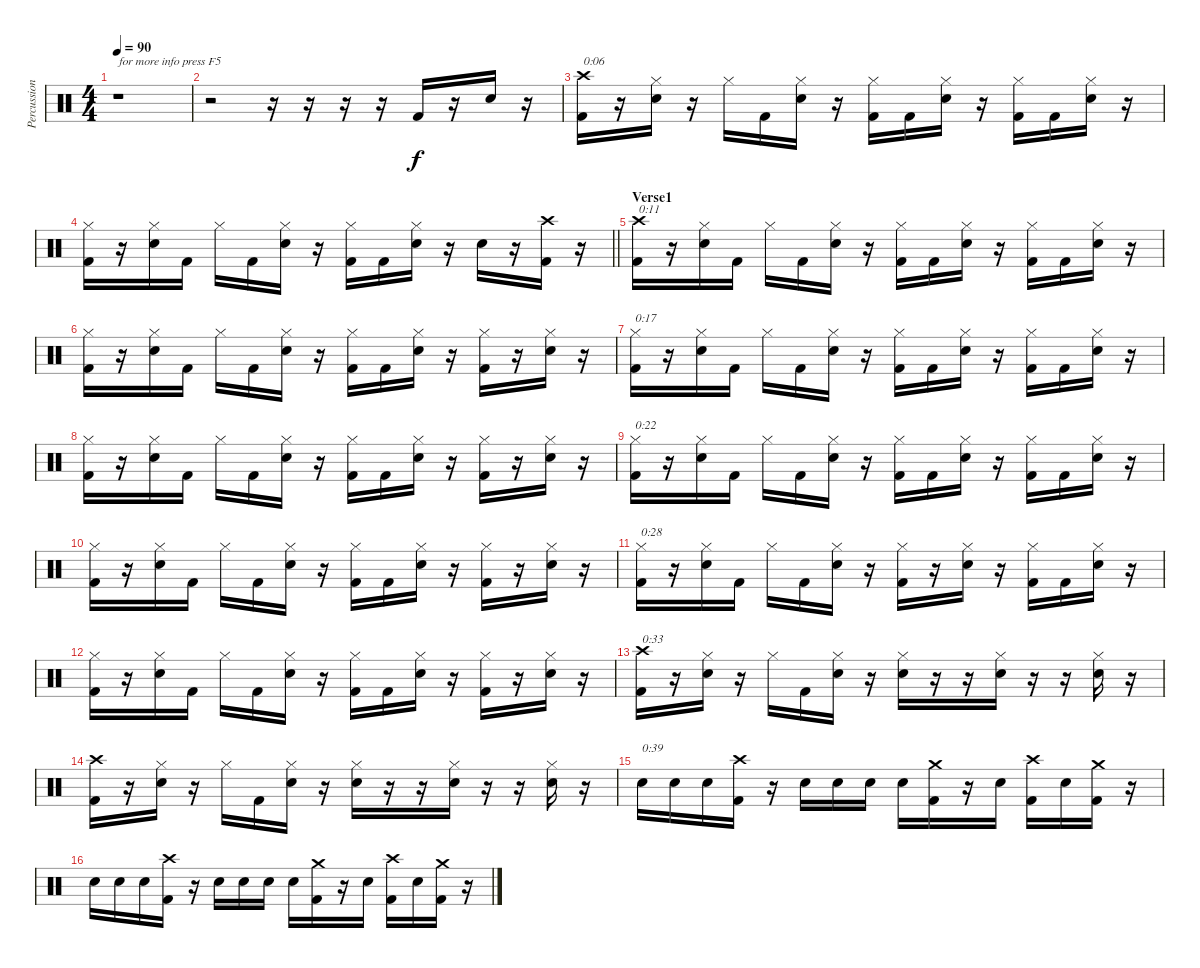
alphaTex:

\track ("Percussion" "Percussion") {instrument percussion}
\staff {score}
\articulation defaults
\ts (4 4)
\tempo 90
\clef neutral
\ks c
r.1{txt "for more info press F5" dy f} |
r.2 r.16 r.16 r.16 r.16 "Kick (hit) 2".16 r.16 "Snare (hit) 2".16 r.16 |
("Crash high (hit)" "Kick (hit) 2").16{txt "0:06"} r.16 ("Hi-Hat (closed)" "Snare (hit) 2").16 r.16 "Hi-Hat (closed)".16 "Kick (hit) 2".16 ("Hi-Hat (closed)" "Snare (hit) 2").16 r.16 ("Hi-Hat (closed)" "Kick (hit) 2").16 "Kick (hit) 2".16 ("Hi-Hat (closed)" "Snare (hit) 2").16 r.16 ("Hi-Hat (closed)" "Kick (hit) 2").16 "Kick (hit) 2".16 ("Hi-Hat (closed)" "Snare (hit) 2").16 r.16 |
\barLineRight lightlight
("Hi-Hat (closed)" "Kick (hit) 2").16 r.16 ("Hi-Hat (closed)" "Snare (hit) 2").16 "Kick (hit) 2".16 "Hi-Hat (closed)".16 "Kick (hit) 2".16 ("Hi-Hat (closed)" "Snare (hit) 2").16 r.16 ("Hi-Hat (closed)" "Kick (hit) 2").16 "Kick (hit) 2".16 ("Hi-Hat (closed)" "Snare (hit) 2").16 r.16 "Snare (hit) 2".16 r.16 ("Crash high (hit)" "Kick (hit) 2").16 r.16 |
\section ("" "Verse1")
("Crash high (hit)" "Kick (hit) 2").16{txt "0:11"} r.16 ("Hi-Hat (closed)" "Snare (hit) 2").16 "Kick (hit) 2".16 "Hi-Hat (closed)".16 "Kick (hit) 2".16 ("Hi-Hat (closed)" "Snare (hit) 2").16 r.16 ("Hi-Hat (closed)" "Kick (hit) 2").16 "Kick (hit) 2".16 ("Hi-Hat (closed)" "Snare (hit) 2").16 r.16 ("Hi-Hat (closed)" "Kick (hit) 2").16 "Kick (hit) 2".16 ("Hi-Hat (closed)" "Snare (hit) 2").16 r.16 |
("Hi-Hat (closed)" "Kick (hit) 2").16 r.16 ("Hi-Hat (closed)" "Snare (hit) 2").16 "Kick (hit) 2".16 "Hi-Hat (closed)".16 "Kick (hit) 2".16 ("Hi-Hat (closed)" "Snare (hit) 2").16 r.16 ("Hi-Hat (closed)" "Kick (hit) 2").16 "Kick (hit) 2".16 ("Hi-Hat (closed)" "Snare (hit) 2").16 r.16 ("Hi-Hat (closed)" "Kick (hit) 2").16 r.16 ("Hi-Hat (closed)" "Snare (hit) 2").16 r.16 |
("Hi-Hat (closed)" "Kick (hit) 2").16{txt "0:17"} r.16 ("Hi-Hat (closed)" "Snare (hit) 2").16 "Kick (hit) 2".16 "Hi-Hat (closed)".16 "Kick (hit) 2".16 ("Hi-Hat (closed)" "Snare (hit) 2").16 r.16 ("Hi-Hat (closed)" "Kick (hit) 2").16 "Kick (hit) 2".16 ("Hi-Hat (closed)" "Snare (hit) 2").16 r.16 ("Hi-Hat (closed)" "Kick (hit) 2").16 "Kick (hit) 2".16 ("Hi-Hat (closed)" "Snare (hit) 2").16 r.16 |
("Hi-Hat (closed)" "Kick (hit) 2").16 r.16 ("Hi-Hat (closed)" "Snare (hit) 2").16 "Kick (hit) 2".16 "Hi-Hat (closed)".16 "Kick (hit) 2".16 ("Hi-Hat (closed)" "Snare (hit) 2").16 r.16 ("Hi-Hat (closed)" "Kick (hit) 2").16 "Kick (hit) 2".16 ("Hi-Hat (closed)" "Snare (hit) 2").16 r.16 ("Hi-Hat (closed)" "Kick (hit) 2").16 r.16 ("Hi-Hat (closed)" "Snare (hit) 2").16 r.16 |
("Hi-Hat (closed)" "Kick (hit) 2").16{txt "0:22"} r.16 ("Hi-Hat (closed)" "Snare (hit) 2").16 "Kick (hit) 2".16 "Hi-Hat (closed)".16 "Kick (hit) 2".16 ("Hi-Hat (closed)" "Snare (hit) 2").16 r.16 ("Hi-Hat (closed)" "Kick (hit) 2").16 "Kick (hit) 2".16 ("Hi-Hat (closed)" "Snare (hit) 2").16 r.16 ("Hi-Hat (closed)" "Kick (hit) 2").16 "Kick (hit) 2".16 ("Hi-Hat (closed)" "Snare (hit) 2").16 r.16 |
("Hi-Hat (closed)" "Kick (hit) 2").16 r.16 ("Hi-Hat (closed)" "Snare (hit) 2").16 "Kick (hit) 2".16 "Hi-Hat (closed)".16 "Kick (hit) 2".16 ("Hi-Hat (closed)" "Snare (hit) 2").16 r.16 ("Hi-Hat (closed)" "Kick (hit) 2").16 "Kick (hit) 2".16 ("Hi-Hat (closed)" "Snare (hit) 2").16 r.16 ("Hi-Hat (closed)" "Kick (hit) 2").16 r.16 ("Hi-Hat (closed)" "Snare (hit) 2").16 r.16 |
("Hi-Hat (closed)" "Kick (hit) 2").16{txt "0:28"} r.16 ("Hi-Hat (closed)" "Snare (hit) 2").16 "Kick (hit) 2".16 "Hi-Hat (closed)".16 "Kick (hit) 2".16 ("Hi-Hat (closed)" "Snare (hit) 2").16 r.16 ("Hi-Hat (closed)" "Kick (hit) 2").16 r.16 ("Hi-Hat (closed)" "Snare (hit) 2").16 r.16 ("Hi-Hat (closed)" "Kick (hit) 2").16 "Kick (hit) 2".16 ("Hi-Hat (closed)" "Snare (hit) 2").16 r.16 |
("Hi-Hat (closed)" "Kick (hit) 2").16 r.16 ("Hi-Hat (closed)" "Snare (hit) 2").16 "Kick (hit) 2".16 "Hi-Hat (closed)".16 "Kick (hit) 2".16 ("Hi-Hat (closed)" "Snare (hit) 2").16 r.16 ("Hi-Hat (closed)" "Kick (hit) 2").16 "Kick (hit) 2".16 ("Hi-Hat (closed)" "Snare (hit) 2").16 r.16 ("Hi-Hat (closed)" "Kick (hit) 2").16 r.16 ("Hi-Hat (closed)" "Snare (hit) 2").16 r.16 |
("Crash high (hit)" "Kick (hit) 2").16{txt "0:33"} r.16 ("Hi-Hat (closed)" "Snare (hit) 2").16 r.16 "Hi-Hat (closed)".16 "Kick (hit) 2".16 ("Hi-Hat (closed)" "Snare (hit) 2").16 r.16 ("Hi-Hat (closed)" "Snare (hit) 2").16 r.16 r.16 ("Hi-Hat (closed)" "Snare (hit) 2").16 r.16 r.16 ("Hi-Hat (closed)" "Snare (hit) 2").16 r.16 |
("Crash high (hit)" "Kick (hit) 2").16 r.16 ("Hi-Hat (closed)" "Snare (hit) 2").16 r.16 "Hi-Hat (closed)".16 "Kick (hit) 2".16 ("Hi-Hat (closed)" "Snare (hit) 2").16 r.16 ("Hi-Hat (closed)" "Snare (hit) 2").16 r.16 r.16 ("Hi-Hat (closed)" "Snare (hit) 2").16 r.16 r.16 ("Hi-Hat (closed)" "Snare (hit) 2").16 r.16 |
"Snare (hit) 2".16{txt "0:39"} "Snare (hit) 2".16 "Snare (hit) 2".16 ("Crash high (hit)" "Kick (hit) 2").16 r.16 "Snare (hit) 2".16 "Snare (hit) 2".16 "Snare (hit) 2".16 "Snare (hit) 2".16 ("Crash medium (hit)" "Kick (hit) 2").16 r.16 "Snare (hit) 2".16 ("Crash high (hit)" "Kick (hit) 2").16 "Snare (hit) 2".16 ("Crash medium (hit)" "Kick (hit) 2").16 r.16 |
"Snare (hit) 2".16 "Snare (hit) 2".16 "Snare (hit) 2".16 ("Crash high (hit)" "Kick (hit) 2").16 r.16 "Snare (hit) 2".16 "Snare (hit) 2".16 "Snare (hit) 2".16 "Snare (hit) 2".16 ("Crash medium (hit)" "Kick (hit) 2").16 r.16 "Snare (hit) 2".16 ("Crash high (hit)" "Kick (hit) 2").16 "Snare (hit) 2".16 ("Crash medium (hit)" "Kick (hit) 2").16 r.16
